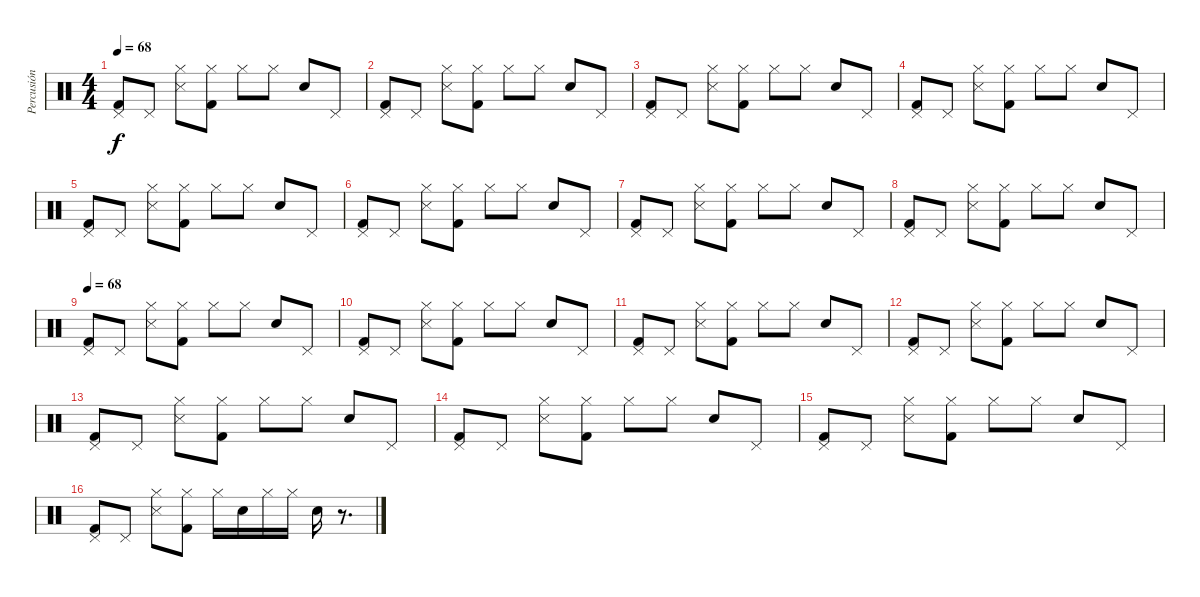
\track ("Percusión" "Percusión") {instrument percussion}
\staff {score}
\articulation defaults
\ts (4 4)
\tempo 68
\clef neutral
\ks c
("Kick (hit) 2" "Pedal Hi-Hat (hit)").8{dy f} "Pedal Hi-Hat (hit)".8 ("Snare (side stick) 3" "Hi-Hat (closed)").8 ("Kick (hit) 2" "Hi-Hat (closed)").8 "Hi-Hat (closed)".8 "Hi-Hat (closed)".8 "Snare (hit) 2".8 "Pedal Hi-Hat (hit)".8 |
("Kick (hit) 2" "Pedal Hi-Hat (hit)").8 "Pedal Hi-Hat (hit)".8 ("Snare (side stick) 3" "Hi-Hat (closed)").8 ("Kick (hit) 2" "Hi-Hat (closed)").8 "Hi-Hat (closed)".8 "Hi-Hat (closed)".8 "Snare (hit) 2".8 "Pedal Hi-Hat (hit)".8 |
("Kick (hit) 2" "Pedal Hi-Hat (hit)").8 "Pedal Hi-Hat (hit)".8 ("Snare (side stick) 3" "Hi-Hat (closed)").8 ("Kick (hit) 2" "Hi-Hat (closed)").8 "Hi-Hat (closed)".8 "Hi-Hat (closed)".8 "Snare (hit) 2".8 "Pedal Hi-Hat (hit)".8 |
("Kick (hit) 2" "Pedal Hi-Hat (hit)").8 "Pedal Hi-Hat (hit)".8 ("Snare (side stick) 3" "Hi-Hat (closed)").8 ("Kick (hit) 2" "Hi-Hat (closed)").8 "Hi-Hat (closed)".8 "Hi-Hat (closed)".8 "Snare (hit) 2".8 "Pedal Hi-Hat (hit)".8 |
("Kick (hit) 2" "Pedal Hi-Hat (hit)").8 "Pedal Hi-Hat (hit)".8 ("Snare (side stick) 3" "Hi-Hat (closed)").8 ("Kick (hit) 2" "Hi-Hat (closed)").8 "Hi-Hat (closed)".8 "Hi-Hat (closed)".8 "Snare (hit) 2".8 "Pedal Hi-Hat (hit)".8 |
("Kick (hit) 2" "Pedal Hi-Hat (hit)").8 "Pedal Hi-Hat (hit)".8 ("Snare (side stick) 3" "Hi-Hat (closed)").8 ("Kick (hit) 2" "Hi-Hat (closed)").8 "Hi-Hat (closed)".8 "Hi-Hat (closed)".8 "Snare (hit) 2".8 "Pedal Hi-Hat (hit)".8 |
("Kick (hit) 2" "Pedal Hi-Hat (hit)").8 "Pedal Hi-Hat (hit)".8 ("Snare (side stick) 3" "Hi-Hat (closed)").8 ("Kick (hit) 2" "Hi-Hat (closed)").8 "Hi-Hat (closed)".8 "Hi-Hat (closed)".8 "Snare (hit) 2".8 "Pedal Hi-Hat (hit)".8 |
("Kick (hit) 2" "Pedal Hi-Hat (hit)").8 "Pedal Hi-Hat (hit)".8 ("Snare (side stick) 3" "Hi-Hat (closed)").8 ("Kick (hit) 2" "Hi-Hat (closed)").8 "Hi-Hat (closed)".8 "Hi-Hat (closed)".8 "Snare (hit) 2".8 "Pedal Hi-Hat (hit)".8 |
\tempo 68
("Kick (hit) 2" "Pedal Hi-Hat (hit)").8 "Pedal Hi-Hat (hit)".8 ("Snare (side stick) 3" "Hi-Hat (closed)").8 ("Kick (hit) 2" "Hi-Hat (closed)").8 "Hi-Hat (closed)".8 "Hi-Hat (closed)".8 "Snare (hit) 2".8 "Pedal Hi-Hat (hit)".8 |
("Kick (hit) 2" "Pedal Hi-Hat (hit)").8 "Pedal Hi-Hat (hit)".8 ("Snare (side stick) 3" "Hi-Hat (closed)").8 ("Kick (hit) 2" "Hi-Hat (closed)").8 "Hi-Hat (closed)".8 "Hi-Hat (closed)".8 "Snare (hit) 2".8 "Pedal Hi-Hat (hit)".8 |
("Kick (hit) 2" "Pedal Hi-Hat (hit)").8 "Pedal Hi-Hat (hit)".8 ("Snare (side stick) 3" "Hi-Hat (closed)").8 ("Kick (hit) 2" "Hi-Hat (closed)").8 "Hi-Hat (closed)".8 "Hi-Hat (closed)".8 "Snare (hit) 2".8 "Pedal Hi-Hat (hit)".8 |
("Kick (hit) 2" "Pedal Hi-Hat (hit)").8 "Pedal Hi-Hat (hit)".8 ("Snare (side stick) 3" "Hi-Hat (closed)").8 ("Kick (hit) 2" "Hi-Hat (closed)").8 "Hi-Hat (closed)".8 "Hi-Hat (closed)".8 "Snare (hit) 2".8 "Pedal Hi-Hat (hit)".8 |
("Kick (hit) 2" "Pedal Hi-Hat (hit)").8 "Pedal Hi-Hat (hit)".8 ("Snare (side stick) 3" "Hi-Hat (closed)").8 ("Kick (hit) 2" "Hi-Hat (closed)").8 "Hi-Hat (closed)".8 "Hi-Hat (closed)".8 "Snare (hit) 2".8 "Pedal Hi-Hat (hit)".8 |
("Kick (hit) 2" "Pedal Hi-Hat (hit)").8 "Pedal Hi-Hat (hit)".8 ("Snare (side stick) 3" "Hi-Hat (closed)").8 ("Kick (hit) 2" "Hi-Hat (closed)").8 "Hi-Hat (closed)".8 "Hi-Hat (closed)".8 "Snare (hit) 2".8 "Pedal Hi-Hat (hit)".8 |
("Kick (hit) 2" "Pedal Hi-Hat (hit)").8 "Pedal Hi-Hat (hit)".8 ("Snare (side stick) 3" "Hi-Hat (closed)").8 ("Kick (hit) 2" "Hi-Hat (closed)").8 "Hi-Hat (closed)".8 "Hi-Hat (closed)".8 "Snare (hit) 2".8 "Pedal Hi-Hat (hit)".8 |
("Kick (hit) 2" "Pedal Hi-Hat (hit)").8 "Pedal Hi-Hat (hit)".8 ("Snare (side stick) 3" "Hi-Hat (closed)").8 ("Kick (hit) 2" "Hi-Hat (closed)").8 "Hi-Hat (closed)".16 "Snare (hit) 2".16 "Hi-Hat (closed)".16 "Hi-Hat (closed)".16 "Snare (hit) 2".16 r.8{d}
